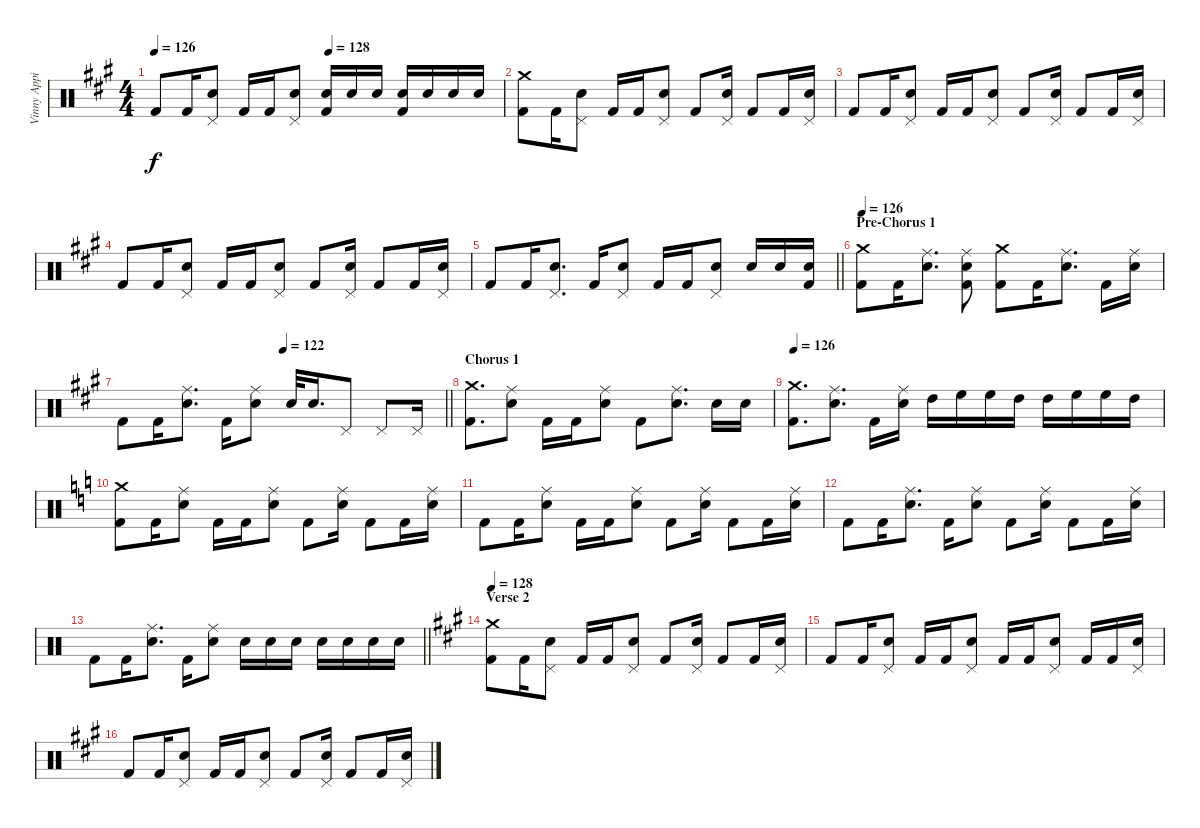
\track ("Vinny Appice" "Vinny Appi") {instrument percussion}
\staff {score}
\articulation defaults
\ts (4 4)
\tempo 126
\tempo (128 0.5)
\clef neutral
\ks f#minor "Kick (hit) 2".8{dy f} "Kick (hit) 2".16
("Snare (hit) 2" "Pedal Hi-Hat (hit)").8 "Kick (hit) 2".16 "Kick (hit) 2".16 ("Snare (hit) 2" "Pedal Hi-Hat (hit)").8 ("Kick (hit) 2" "Snare (hit) 2").16 "Snare (hit) 2".16 "Snare (hit) 2".16 ("Kick (hit) 2" "Snare (hit) 2").16 "Snare (hit) 2".16 "Snare (hit) 2".16 "Snare (hit) 2".16 |
("Kick (hit) 2" "Crash medium (hit)").8 "Kick (hit) 2".16 ("Snare (hit) 2" "Pedal Hi-Hat (hit)").8 "Kick (hit) 2".16 "Kick (hit) 2".16 ("Snare (hit) 2" "Pedal Hi-Hat (hit)").8 "Kick (hit) 2".8 ("Snare (hit) 2" "Pedal Hi-Hat (hit)").16 "Kick (hit) 2".8 "Kick (hit) 2".16 ("Snare (hit) 2" "Pedal Hi-Hat (hit)").16 |
"Kick (hit) 2".8 "Kick (hit) 2".16 ("Snare (hit) 2" "Pedal Hi-Hat (hit)").8 "Kick (hit) 2".16 "Kick (hit) 2".16 ("Snare (hit) 2" "Pedal Hi-Hat (hit)").8 "Kick (hit) 2".8 ("Snare (hit) 2" "Pedal Hi-Hat (hit)").16 "Kick (hit) 2".8 "Kick (hit) 2".16 ("Snare (hit) 2" "Pedal Hi-Hat (hit)").16 |
"Kick (hit) 2".8 "Kick (hit) 2".16 ("Snare (hit) 2" "Pedal Hi-Hat (hit)").8 "Kick (hit) 2".16 "Kick (hit) 2".16 ("Snare (hit) 2" "Pedal Hi-Hat (hit)").8 "Kick (hit) 2".8 ("Snare (hit) 2" "Pedal Hi-Hat (hit)").16 "Kick (hit) 2".8 "Kick (hit) 2".16 ("Snare (hit) 2" "Pedal Hi-Hat (hit)").16 |
\barLineRight lightlight "Kick (hit) 2".8 "Kick (hit) 2".16
("Snare (hit) 2" "Pedal Hi-Hat (hit)").8{d} "Kick (hit) 2".16 ("Snare (hit) 2" "Pedal Hi-Hat (hit)").8 "Kick (hit) 2".16 "Kick (hit) 2".16 ("Snare (hit) 2" "Pedal Hi-Hat (hit)").8 "Snare (hit) 2".16 "Snare (hit) 2".16 ("Kick (hit) 2" "Snare (hit) 2").16 |
\section ("" "Pre-Chorus 1")
\tempo 126
("Crash medium (hit)" "Kick (hit) 2").8 "Kick (hit) 2".16 ("Snare (hit) 2" "Ride (middle)").8{d} ("Ride (middle)" "Snare (hit) 2" "Kick (hit) 2").8 ("Crash medium (hit)" "Kick (hit) 2").8 "Kick (hit) 2".16 ("Ride (middle)" "Snare (hit) 2").8{d} "Kick (hit) 2".16 ("Snare (hit) 2" "Ride (middle)").16 |
\tempo (122 0.5)
\barLineRight lightlight "Kick (hit) 2".8 "Kick (hit) 2".16
("Ride (middle)" "Snare (hit) 2").8{d} "Kick (hit) 2".16 ("Ride (middle)" "Snare (hit) 2").8 "Snare (hit) 2".32 "Snare (hit) 2".16{d} "Pedal Hi-Hat (hit)".8 "Pedal Hi-Hat (hit)".8 "Pedal Hi-Hat (hit)".16 |
\section ("" "Chorus 1")
("Kick (hit) 2" "Crash medium (hit)").8{d} ("Snare (hit) 2" "Ride (middle)").8 "Kick (hit) 2".16 "Kick (hit) 2".16 ("Snare (hit) 2" "Ride (middle)").8 "Kick (hit) 2".8 ("Snare (hit) 2" "Ride (middle)").8{d} "Snare (hit) 2".16 "Snare (hit) 2".16 |
\tempo 126
("Kick (hit) 2" "Crash medium (hit)").8{d} ("Snare (hit) 2" "Ride (middle)").8{d} "Kick (hit) 2".16 ("Ride (middle)" "Snare (hit) 2").16 "High Tom (hit)".16 "High Floor Tom (hit)".16 "High Floor Tom (hit)".16 "High Tom (hit)".16 "High Tom (hit)".16 "High Floor Tom (hit)".16 "High Floor Tom (hit)".16 "High Tom (hit)".16 |
\ks aminor
("Crash medium (hit)" "Kick (hit) 2").8 "Kick (hit) 2".16 ("Ride (middle)" "Snare (hit) 2").8 "Kick (hit) 2".16 "Kick (hit) 2".16 ("Ride (middle)" "Snare (hit) 2").8 "Kick (hit) 2".8 ("Ride (middle)" "Snare (hit) 2").16 "Kick (hit) 2".8 "Kick (hit) 2".16 ("Ride (middle)" "Snare (hit) 2").16 |
"Kick (hit) 2".8 "Kick (hit) 2".16 ("Ride (middle)" "Snare (hit) 2").8 "Kick (hit) 2".16 "Kick (hit) 2".16 ("Snare (hit) 2" "Ride (middle)").8 "Kick (hit) 2".8 ("Snare (hit) 2" "Ride (middle)").16 "Kick (hit) 2".8 "Kick (hit) 2".16 ("Ride (middle)" "Snare (hit) 2").16 |
"Kick (hit) 2".8 "Kick (hit) 2".16 ("Snare (hit) 2" "Ride (middle)").8{d} "Kick (hit) 2".16 ("Snare (hit) 2" "Ride (middle)").8 "Kick (hit) 2".8 ("Snare (hit) 2" "Ride (middle)").16 "Kick (hit) 2".8 "Kick (hit) 2".16 ("Snare (hit) 2" "Ride (middle)").16 |
\barLineRight lightlight "Kick (hit) 2".8 "Kick (hit) 2".16
("Snare (hit) 2" "Ride (middle)").8{d} "Kick (hit) 2".16 ("Snare (hit) 2" "Ride (middle)").8 "Snare (hit) 2".16 "Snare (hit) 2".16 "Snare (hit) 2".16 "Snare (hit) 2".16 "Snare (hit) 2".16 "Snare (hit) 2".16 "Snare (hit) 2".16 |
\section ("" "Verse 2")
\tempo 128
\ks f#minor
("Crash medium (hit)" "Kick (hit) 2").8 "Kick (hit) 2".16 ("Snare (hit) 2" "Pedal Hi-Hat (hit)").8 "Kick (hit) 2".16 "Kick (hit) 2".16 ("Snare (hit) 2" "Pedal Hi-Hat (hit)").8 "Kick (hit) 2".8 ("Snare (hit) 2" "Pedal Hi-Hat (hit)").16 "Kick (hit) 2".8 "Kick (hit) 2".16 ("Snare (hit) 2" "Pedal Hi-Hat (hit)").16 |
"Kick (hit) 2".8 "Kick (hit) 2".16 ("Snare (hit) 2" "Pedal Hi-Hat (hit)").8 "Kick (hit) 2".16 "Kick (hit) 2".16 ("Snare (hit) 2" "Pedal Hi-Hat (hit)").8 "Kick (hit) 2".16 "Kick (hit) 2".16 ("Snare (hit) 2" "Pedal Hi-Hat (hit)").8 "Kick (hit) 2".16 "Kick (hit) 2".16 ("Snare (hit) 2" "Pedal Hi-Hat (hit)").16 |
"Kick (hit) 2".8 "Kick (hit) 2".16 ("Snare (hit) 2" "Pedal Hi-Hat (hit)").8 "Kick (hit) 2".16 "Kick (hit) 2".16 ("Snare (hit) 2" "Pedal Hi-Hat (hit)").8 "Kick (hit) 2".8 ("Snare (hit) 2" "Pedal Hi-Hat (hit)").16 "Kick (hit) 2".8 "Kick (hit) 2".16 ("Snare (hit) 2" "Pedal Hi-Hat (hit)").16
